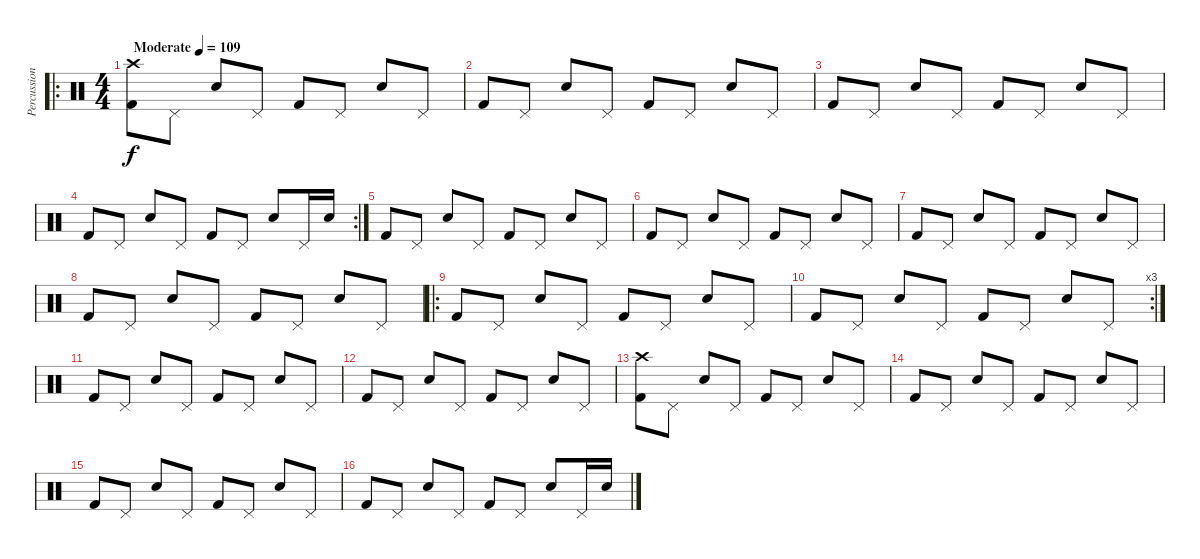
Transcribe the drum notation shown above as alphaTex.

\track ("Percussions" "Percussion") {instrument percussion}
\staff {score}
\articulation defaults
\ro
\ts (4 4)
\tempo (109 "Moderate")
\clef neutral
\ks c
("Crash high (hit)" "Kick (hit) 2").8{dy f} "Pedal Hi-Hat (hit)".8 "Snare (hit) 2".8 "Pedal Hi-Hat (hit)".8 "Kick (hit) 2".8 "Pedal Hi-Hat (hit)".8 "Snare (hit) 2".8 "Pedal Hi-Hat (hit)".8 |
"Kick (hit) 2".8 "Pedal Hi-Hat (hit)".8 "Snare (hit) 2".8 "Pedal Hi-Hat (hit)".8 "Kick (hit) 2".8 "Pedal Hi-Hat (hit)".8 "Snare (hit) 2".8 "Pedal Hi-Hat (hit)".8 |
"Kick (hit) 2".8 "Pedal Hi-Hat (hit)".8 "Snare (hit) 2".8 "Pedal Hi-Hat (hit)".8 "Kick (hit) 2".8 "Pedal Hi-Hat (hit)".8 "Snare (hit) 2".8 "Pedal Hi-Hat (hit)".8 |
\rc 2 "Kick (hit) 2".8 "Pedal Hi-Hat (hit)".8 "Snare (hit) 2".8 "Pedal Hi-Hat (hit)".8 "Kick (hit) 2".8 "Pedal Hi-Hat (hit)".8 "Snare (hit) 2".8 "Pedal Hi-Hat (hit)".16 "Snare (hit) 2".16
|
"Kick (hit) 2".8 "Pedal Hi-Hat (hit)".8 "Snare (hit) 2".8 "Pedal Hi-Hat (hit)".8 "Kick (hit) 2".8 "Pedal Hi-Hat (hit)".8 "Snare (hit) 2".8 "Pedal Hi-Hat (hit)".8 |
"Kick (hit) 2".8 "Pedal Hi-Hat (hit)".8 "Snare (hit) 2".8 "Pedal Hi-Hat (hit)".8 "Kick (hit) 2".8 "Pedal Hi-Hat (hit)".8 "Snare (hit) 2".8 "Pedal Hi-Hat (hit)".8 |
"Kick (hit) 2".8 "Pedal Hi-Hat (hit)".8 "Snare (hit) 2".8 "Pedal Hi-Hat (hit)".8 "Kick (hit) 2".8 "Pedal Hi-Hat (hit)".8 "Snare (hit) 2".8 "Pedal Hi-Hat (hit)".8 |
"Kick (hit) 2".8 "Pedal Hi-Hat (hit)".8 "Snare (hit) 2".8 "Pedal Hi-Hat (hit)".8 "Kick (hit) 2".8 "Pedal Hi-Hat (hit)".8 "Snare (hit) 2".8 "Pedal Hi-Hat (hit)".8 |
\ro "Kick (hit) 2".8 "Pedal Hi-Hat (hit)".8 "Snare (hit) 2".8 "Pedal Hi-Hat (hit)".8 "Kick (hit) 2".8 "Pedal Hi-Hat (hit)".8 "Snare (hit) 2".8 "Pedal Hi-Hat (hit)".8
|
\rc 3 "Kick (hit) 2".8 "Pedal Hi-Hat (hit)".8 "Snare (hit) 2".8 "Pedal Hi-Hat (hit)".8 "Kick (hit) 2".8 "Pedal Hi-Hat (hit)".8 "Snare (hit) 2".8 "Pedal Hi-Hat (hit)".8
|
"Kick (hit) 2".8 "Pedal Hi-Hat (hit)".8 "Snare (hit) 2".8 "Pedal Hi-Hat (hit)".8 "Kick (hit) 2".8 "Pedal Hi-Hat (hit)".8 "Snare (hit) 2".8 "Pedal Hi-Hat (hit)".8 |
"Kick (hit) 2".8 "Pedal Hi-Hat (hit)".8 "Snare (hit) 2".8 "Pedal Hi-Hat (hit)".8 "Kick (hit) 2".8 "Pedal Hi-Hat (hit)".8 "Snare (hit) 2".8 "Pedal Hi-Hat (hit)".8 |
("Crash high (hit)" "Kick (hit) 2").8 "Pedal Hi-Hat (hit)".8 "Snare (hit) 2".8 "Pedal Hi-Hat (hit)".8 "Kick (hit) 2".8 "Pedal Hi-Hat (hit)".8 "Snare (hit) 2".8 "Pedal Hi-Hat (hit)".8 |
"Kick (hit) 2".8 "Pedal Hi-Hat (hit)".8 "Snare (hit) 2".8 "Pedal Hi-Hat (hit)".8 "Kick (hit) 2".8 "Pedal Hi-Hat (hit)".8 "Snare (hit) 2".8 "Pedal Hi-Hat (hit)".8 |
"Kick (hit) 2".8 "Pedal Hi-Hat (hit)".8 "Snare (hit) 2".8 "Pedal Hi-Hat (hit)".8 "Kick (hit) 2".8 "Pedal Hi-Hat (hit)".8 "Snare (hit) 2".8 "Pedal Hi-Hat (hit)".8 |
"Kick (hit) 2".8 "Pedal Hi-Hat (hit)".8 "Snare (hit) 2".8 "Pedal Hi-Hat (hit)".8 "Kick (hit) 2".8 "Pedal Hi-Hat (hit)".8 "Snare (hit) 2".8 "Pedal Hi-Hat (hit)".16 "Snare (hit) 2".16
